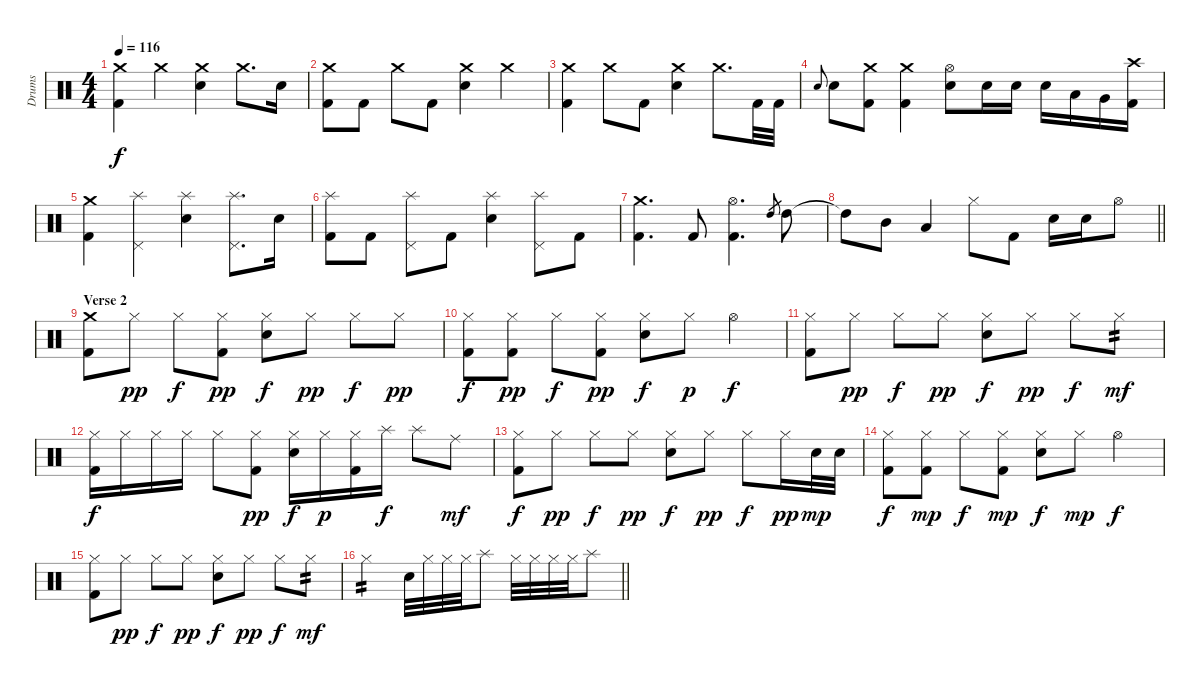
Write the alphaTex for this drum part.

\track ("Drums" "Drums") {instrument percussion}
\staff {score}
\articulation defaults
\ts (4 4)
\tempo 116
\clef neutral
\ks c
("Crash medium (hit)" "Kick (hit) 2").4{dy f} "Crash medium (hit)".4 ("Crash medium (hit)" "Electric Snare (hit)").4 "Crash medium (hit)".8{d} "Electric Snare (hit)".16 |
("Crash medium (hit)" "Kick (hit) 2").8 "Kick (hit) 2".8 "Crash medium (hit)".8 "Kick (hit) 2".8 ("Crash medium (hit)" "Electric Snare (hit)").4 "Crash medium (hit)".4 |
("Crash medium (hit)" "Kick (hit) 2").4 "Crash medium (hit)".8 "Kick (hit) 2".8 ("Crash medium (hit)" "Electric Snare (hit)").4 "Crash medium (hit)".8{d} "Kick (hit) 2".32 "Kick (hit) 2".32 |
"Electric Snare (hit)".8{gr onbeat} "Electric Snare (hit)".8 ("Crash medium (hit)" "Kick (hit) 2").8 ("Crash medium (hit)" "Kick (hit) 2").4 ("Hi-Hat (open)" "Snare (hit) 2").8 "Electric Snare (hit)".16 "Electric Snare (hit)".16 "Electric Snare (hit)".16 "Low Tom (hit)".16 "Very Low Tom (hit)".16 ("Crash high (hit)" "Kick (hit) 2").16 |
("Crash medium (hit)" "Kick (hit) 2").4 ("Splash (hit)" "Pedal Hi-Hat (hit)").4 ("Splash (hit)" "Electric Snare (hit)").4 ("Splash (hit)" "Pedal Hi-Hat (hit)").8{d} "Electric Snare (hit)".16 |
("Splash (hit)" "Kick (hit) 2").8 "Kick (hit) 2".8 ("Splash (hit)" "Pedal Hi-Hat (hit)").8 "Kick (hit) 2".8 ("Splash (hit)" "Electric Snare (hit)").4 ("Splash (hit)" "Pedal Hi-Hat (hit)").8 "Kick (hit) 2".8 |
("Crash medium (hit)" "Kick (hit) 2").4{d} "Kick (hit) 2".8 ("Hi-Hat (open)" "Kick (hit) 2").4{d} "High Tom (hit)".8{gr} "High Tom (hit)".8 |
\barLineRight lightlight "High Tom (hit)"{t}.8 "Mid Tom (hit)".8 "Low Tom (hit)".4 "Hi-Hat (closed)".8 "Kick (hit) 2".8 "Electric Snare (hit)".16 "Electric Snare (hit)".16 "Hi-Hat (open)".8
|
\section ("" "Verse 2")
("Crash medium (hit)" "Kick (hit) 2").8 "Hi-Hat (closed)".8{dy pp} "Hi-Hat (closed)".8{dy f} ("Hi-Hat (closed)" "Kick (hit) 2").8{dy pp} ("Hi-Hat (closed)" "Electric Snare (hit)").8{dy f} "Hi-Hat (closed)".8{dy pp} "Hi-Hat (closed)".8{dy f} "Hi-Hat (closed)".8{dy pp} |
("Hi-Hat (closed)" "Kick (hit) 2").8{dy f} ("Hi-Hat (closed)" "Kick (hit) 2").8{dy pp} "Hi-Hat (closed)".8{dy f} ("Hi-Hat (closed)" "Kick (hit) 2").8{dy pp} ("Hi-Hat (closed)" "Electric Snare (hit)").8{dy f} "Hi-Hat (closed)".8{dy p} "Hi-Hat (open)".4{dy f} |
("Hi-Hat (closed)" "Kick (hit) 2").8 "Hi-Hat (closed)".8{dy pp} "Hi-Hat (closed)".8{dy f} "Hi-Hat (closed)".8{dy pp} ("Hi-Hat (closed)" "Electric Snare (hit)").8{dy f} "Hi-Hat (closed)".8{dy pp} "Hi-Hat (closed)".8{dy f} "Hi-Hat (closed)".8{tp 2 dy mf} |
("Hi-Hat (closed)" "Kick (hit) 2").16{dy f} "Hi-Hat (closed)".16 "Hi-Hat (closed)".16 "Hi-Hat (closed)".16 "Hi-Hat (closed)".8 ("Hi-Hat (closed)" "Kick (hit) 2").8{dy pp} ("Hi-Hat (closed)" "Electric Snare (hit)").16{dy f} "Hi-Hat (closed)".16{dy p} ("Hi-Hat (closed)" "Kick (hit) 2").16 "Splash (hit)".16{dy f} "Splash (hit)".8 "Ride (middle)".8{dy mf} |
("Hi-Hat (closed)" "Kick (hit) 2").8{dy f} "Hi-Hat (closed)".8{dy pp} "Hi-Hat (closed)".8{dy f} "Hi-Hat (closed)".8{dy pp} ("Hi-Hat (closed)" "Electric Snare (hit)").8{dy f} "Hi-Hat (closed)".8{dy pp} "Hi-Hat (closed)".8{dy f} "Hi-Hat (closed)".16{dy pp} "Electric Snare (hit)".32{dy mp} "Electric Snare (hit)".32 |
("Hi-Hat (closed)" "Kick (hit) 2").8{dy f} ("Hi-Hat (closed)" "Kick (hit) 2").8{dy mp} "Hi-Hat (closed)".8{dy f} ("Hi-Hat (closed)" "Kick (hit) 2").8{dy mp} ("Hi-Hat (closed)" "Electric Snare (hit)").8{dy f} "Hi-Hat (closed)".8{dy mp} "Hi-Hat (open)".4{dy f} |
("Hi-Hat (closed)" "Kick (hit) 2").8 "Hi-Hat (closed)".8{dy pp} "Hi-Hat (closed)".8{dy f} "Hi-Hat (closed)".8{dy pp} ("Hi-Hat (closed)" "Electric Snare (hit)").8{dy f} "Hi-Hat (closed)".8{dy pp} "Hi-Hat (closed)".8{dy f} "Hi-Hat (closed)".8{tp 2 dy mf} |
\barLineRight lightlight "Hi-Hat (closed)".2{tp 2} "Electric Snare (hit)".32 "Hi-Hat (closed)".32 "Hi-Hat (closed)".32 "Hi-Hat (closed)".32 "Splash (hit)".8 "Hi-Hat (closed)".32 "Hi-Hat (closed)".32 "Hi-Hat (closed)".32 "Hi-Hat (closed)".32 "Splash (hit)".8
